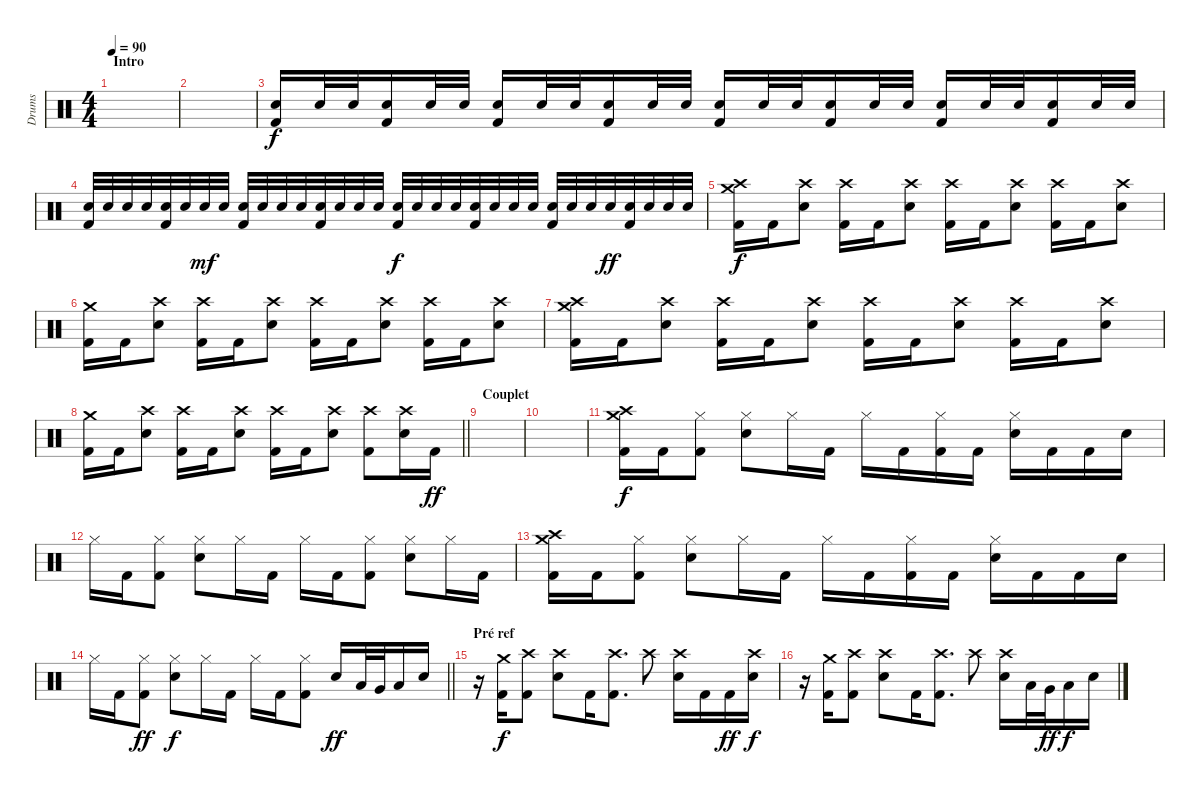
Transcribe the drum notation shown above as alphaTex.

\track ("Drums" "Drums") {instrument percussion}
\staff {score}
\articulation defaults
\ts (4 4)
\section ("" "Intro")
\tempo 90
\clef neutral
\ks c
|
|
("Electric Snare (hit)" "Kick (hit) 2").16 "Electric Snare (hit)".32 "Electric Snare (hit)".32 ("Electric Snare (hit)" "Kick (hit) 2").16 "Electric Snare (hit)".32 "Electric Snare (hit)".32 ("Electric Snare (hit)" "Kick (hit) 2").16 "Electric Snare (hit)".32 "Electric Snare (hit)".32 ("Electric Snare (hit)" "Kick (hit) 2").16 "Electric Snare (hit)".32 "Electric Snare (hit)".32 ("Electric Snare (hit)" "Kick (hit) 2").16 "Electric Snare (hit)".32 "Electric Snare (hit)".32 ("Electric Snare (hit)" "Kick (hit) 2").16 "Electric Snare (hit)".32 "Electric Snare (hit)".32 ("Electric Snare (hit)" "Kick (hit) 2").16 "Electric Snare (hit)".32 "Electric Snare (hit)".32 ("Electric Snare (hit)" "Kick (hit) 2").16 "Electric Snare (hit)".32 "Electric Snare (hit)".32 |
("Electric Snare (hit)" "Kick (hit) 2").32 "Electric Snare (hit)".32 "Electric Snare (hit)".32 "Electric Snare (hit)".32 ("Electric Snare (hit)" "Kick (hit) 2").32 "Electric Snare (hit)".32 "Electric Snare (hit)".32{dy mf} "Electric Snare (hit)".32 ("Electric Snare (hit)" "Kick (hit) 2").32 "Electric Snare (hit)".32 "Electric Snare (hit)".32 "Electric Snare (hit)".32 ("Electric Snare (hit)" "Kick (hit) 2").32 "Electric Snare (hit)".32 "Electric Snare (hit)".32 "Electric Snare (hit)".32 ("Electric Snare (hit)" "Kick (hit) 2").32{dy f} "Electric Snare (hit)".32 "Electric Snare (hit)".32 "Electric Snare (hit)".32 ("Electric Snare (hit)" "Kick (hit) 2").32 "Electric Snare (hit)".32 "Electric Snare (hit)".32 "Electric Snare (hit)".32 ("Electric Snare (hit)" "Kick (hit) 2").32 "Electric Snare (hit)".32 "Electric Snare (hit)".32 "Electric Snare (hit)".32{dy ff} ("Electric Snare (hit)" "Kick (hit) 2").32 "Electric Snare (hit)".32 "Electric Snare (hit)".32 "Electric Snare (hit)".32 |
("Crash high (hit)" "Crash medium (hit)" "Kick (hit) 2").16{dy f} "Kick (hit) 2".16 ("Crash high (hit)" "Electric Snare (hit)").8 ("Crash high (hit)" "Kick (hit) 2").16 "Kick (hit) 2".16 ("Crash high (hit)" "Electric Snare (hit)").8 ("Crash high (hit)" "Kick (hit) 2").16 "Kick (hit) 2".16 ("Crash high (hit)" "Electric Snare (hit)").8 ("Crash high (hit)" "Kick (hit) 2").16 "Kick (hit) 2".16 ("Crash high (hit)" "Electric Snare (hit)").8 |
("Crash medium (hit)" "Kick (hit) 2").16 "Kick (hit) 2".16 ("Crash high (hit)" "Electric Snare (hit)").8 ("Crash high (hit)" "Kick (hit) 2").16 "Kick (hit) 2".16 ("Crash high (hit)" "Electric Snare (hit)").8 ("Crash high (hit)" "Kick (hit) 2").16 "Kick (hit) 2".16 ("Crash high (hit)" "Electric Snare (hit)").8 ("Crash high (hit)" "Kick (hit) 2").16 "Kick (hit) 2".16 ("Crash high (hit)" "Electric Snare (hit)").8 |
("Crash high (hit)" "Crash medium (hit)" "Kick (hit) 2").16 "Kick (hit) 2".16 ("Crash high (hit)" "Electric Snare (hit)").8 ("Crash high (hit)" "Kick (hit) 2").16 "Kick (hit) 2".16 ("Crash high (hit)" "Electric Snare (hit)").8 ("Crash high (hit)" "Kick (hit) 2").16 "Kick (hit) 2".16 ("Crash high (hit)" "Electric Snare (hit)").8 ("Crash high (hit)" "Kick (hit) 2").16 "Kick (hit) 2".16 ("Crash high (hit)" "Electric Snare (hit)").8 |
\barLineRight lightlight
("Crash medium (hit)" "Kick (hit) 2").16 "Kick (hit) 2".16 ("Crash high (hit)" "Electric Snare (hit)").8 ("Crash high (hit)" "Kick (hit) 2").16 "Kick (hit) 2".16 ("Crash high (hit)" "Electric Snare (hit)").8 ("Crash high (hit)" "Kick (hit) 2").16 "Kick (hit) 2".16 ("Crash high (hit)" "Electric Snare (hit)").8 ("Crash high (hit)" "Kick (hit) 2").8 ("Crash high (hit)" "Electric Snare (hit)").16 "Kick (hit) 2".16{dy ff} |
\section ("" "Couplet")
|
|
("Crash medium (hit)" "Crash high (hit)" "Kick (hit) 2").16{dy f} "Kick (hit) 2".16 ("Hi-Hat (closed)" "Kick (hit) 2").8 ("Hi-Hat (closed)" "Electric Snare (hit)").8 "Hi-Hat (closed)".16 "Kick (hit) 2".16 "Hi-Hat (closed)".16 "Kick (hit) 2".16 ("Hi-Hat (closed)" "Kick (hit) 2").16 "Kick (hit) 2".16 ("Hi-Hat (closed)" "Electric Snare (hit)").16 "Kick (hit) 2".16 "Kick (hit) 2".16 "Electric Snare (hit)".16 |
"Hi-Hat (closed)".16 "Kick (hit) 2".16 ("Hi-Hat (closed)" "Kick (hit) 2").8 ("Hi-Hat (closed)" "Electric Snare (hit)").8 "Hi-Hat (closed)".16 "Kick (hit) 2".16 "Hi-Hat (closed)".16 "Kick (hit) 2".16 ("Hi-Hat (closed)" "Kick (hit) 2").8 ("Hi-Hat (closed)" "Electric Snare (hit)").8 "Hi-Hat (closed)".16 "Kick (hit) 2".16 |
("Crash medium (hit)" "Crash high (hit)" "Kick (hit) 2").16 "Kick (hit) 2".16 ("Hi-Hat (closed)" "Kick (hit) 2").8 ("Hi-Hat (closed)" "Electric Snare (hit)").8 "Hi-Hat (closed)".16 "Kick (hit) 2".16 "Hi-Hat (closed)".16 "Kick (hit) 2".16 ("Hi-Hat (closed)" "Kick (hit) 2").16 "Kick (hit) 2".16 ("Hi-Hat (closed)" "Electric Snare (hit)").16 "Kick (hit) 2".16 "Kick (hit) 2".16 "Electric Snare (hit)".16 |
\barLineRight lightlight "Hi-Hat (closed)".16 "Kick (hit) 2".16
("Hi-Hat (closed)" "Kick (hit) 2").8{dy ff} ("Hi-Hat (closed)" "Electric Snare (hit)").8{dy f} "Hi-Hat (closed)".16 "Kick (hit) 2".16 "Hi-Hat (closed)".16 "Kick (hit) 2".16 ("Hi-Hat (closed)" "Kick (hit) 2").8 "Electric Snare (hit)".16{dy ff} "Low Tom (hit)".32 "Very Low Tom (hit)".32 "Low Floor Tom (hit)".16 "Electric Snare (hit)".16 |
\section ("" "Pré ref")
r.16 ("Crash medium (hit)" "Kick (hit) 2").16{dy f} ("Crash high (hit)" "Kick (hit) 2").8 ("Crash high (hit)" "Electric Snare (hit)").8 "Kick (hit) 2".16 ("Crash high (hit)" "Kick (hit) 2").8{d} "Crash high (hit)".8 ("Crash high (hit)" "Electric Snare (hit)").16 "Kick (hit) 2".16 "Kick (hit) 2".16{dy ff} ("Crash high (hit)" "Electric Snare (hit)").16{dy f} |
r.16 ("Crash medium (hit)" "Kick (hit) 2").16 ("Crash high (hit)" "Kick (hit) 2").8 ("Crash high (hit)" "Electric Snare (hit)").8 "Kick (hit) 2".16 ("Crash high (hit)" "Kick (hit) 2").8{d} "Crash high (hit)".8 ("Crash high (hit)" "Electric Snare (hit)").16 "Low Tom (hit)".32 "Very Low Tom (hit)".32{dy ff} "Low Floor Tom (hit)".16{dy f} "Electric Snare (hit)".16
